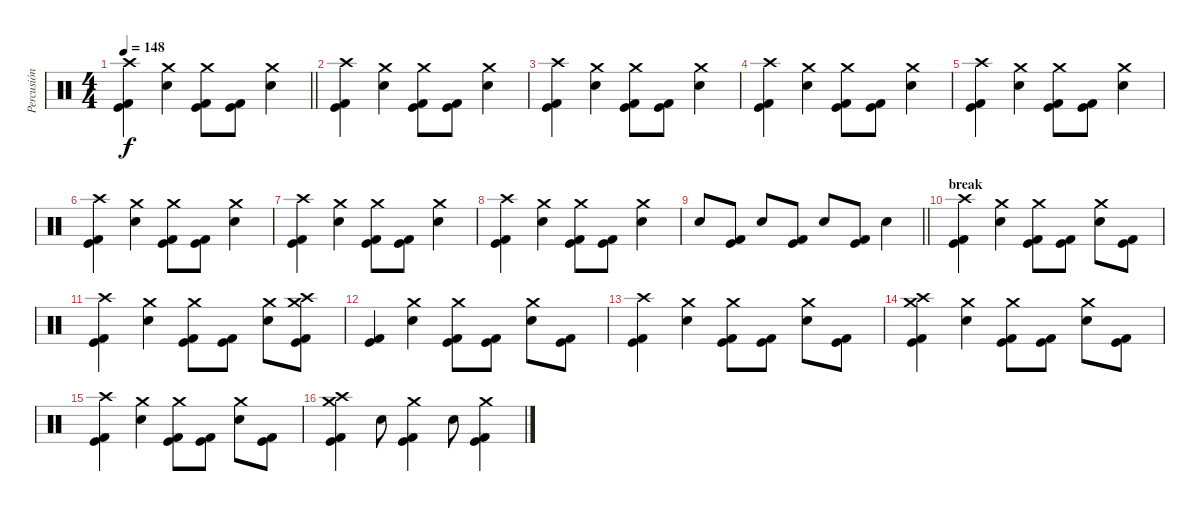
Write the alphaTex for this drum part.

\track ("Percusión" "Percusión") {instrument percussion}
\staff {score}
\articulation defaults
\ts (4 4)
\tempo 148
\clef neutral
\barLineRight lightlight
\ks c
("Crash high (hit)" "Kick (hit)" "Kick (hit) 2").4{dy f} ("Crash medium (hit)" "Electric Snare (hit)").4 ("Crash medium (hit)" "Kick (hit)" "Kick (hit) 2").8 ("Kick (hit)" "Kick (hit) 2").8 ("Crash medium (hit)" "Electric Snare (hit)").4 |
("Crash high (hit)" "Kick (hit)" "Kick (hit) 2").4 ("Crash medium (hit)" "Electric Snare (hit)").4 ("Crash medium (hit)" "Kick (hit)" "Kick (hit) 2").8 ("Kick (hit)" "Kick (hit) 2").8 ("Crash medium (hit)" "Electric Snare (hit)").4 |
("Crash high (hit)" "Kick (hit)" "Kick (hit) 2").4 ("Crash medium (hit)" "Electric Snare (hit)").4 ("Crash medium (hit)" "Kick (hit)" "Kick (hit) 2").8 ("Kick (hit)" "Kick (hit) 2").8 ("Crash medium (hit)" "Electric Snare (hit)").4 |
("Crash high (hit)" "Kick (hit)" "Kick (hit) 2").4 ("Crash medium (hit)" "Electric Snare (hit)").4 ("Crash medium (hit)" "Kick (hit)" "Kick (hit) 2").8 ("Kick (hit)" "Kick (hit) 2").8 ("Crash medium (hit)" "Electric Snare (hit)").4 |
("Crash high (hit)" "Kick (hit)" "Kick (hit) 2").4 ("Crash medium (hit)" "Electric Snare (hit)").4 ("Crash medium (hit)" "Kick (hit)" "Kick (hit) 2").8 ("Kick (hit)" "Kick (hit) 2").8 ("Crash medium (hit)" "Electric Snare (hit)").4 |
("Crash high (hit)" "Kick (hit)" "Kick (hit) 2").4 ("Crash medium (hit)" "Electric Snare (hit)").4 ("Crash medium (hit)" "Kick (hit)" "Kick (hit) 2").8 ("Kick (hit)" "Kick (hit) 2").8 ("Crash medium (hit)" "Electric Snare (hit)").4 |
("Crash high (hit)" "Kick (hit)" "Kick (hit) 2").4 ("Crash medium (hit)" "Electric Snare (hit)").4 ("Crash medium (hit)" "Kick (hit)" "Kick (hit) 2").8 ("Kick (hit)" "Kick (hit) 2").8 ("Crash medium (hit)" "Electric Snare (hit)").4 |
("Crash high (hit)" "Kick (hit)" "Kick (hit) 2").4 ("Crash medium (hit)" "Electric Snare (hit)").4 ("Crash medium (hit)" "Kick (hit)" "Kick (hit) 2").8 ("Kick (hit)" "Kick (hit) 2").8 ("Crash medium (hit)" "Electric Snare (hit)").4 |
\barLineRight lightlight "Electric Snare (hit)".8
("Kick (hit)" "Kick (hit) 2").8 "Electric Snare (hit)".8 ("Kick (hit)" "Kick (hit) 2").8 "Electric Snare (hit)".8 ("Kick (hit)" "Kick (hit) 2").8 "Electric Snare (hit)".4 |
\section ("" "break")
("Crash high (hit)" "Kick (hit)" "Kick (hit) 2").4 ("Crash medium (hit)" "Electric Snare (hit)").4 ("Crash medium (hit)" "Kick (hit)" "Kick (hit) 2").8 ("Kick (hit)" "Kick (hit) 2").8 ("Crash medium (hit)" "Electric Snare (hit)").8 ("Kick (hit)" "Kick (hit) 2").8 |
("Crash high (hit)" "Kick (hit)" "Kick (hit) 2").4 ("Crash medium (hit)" "Electric Snare (hit)").4 ("Crash medium (hit)" "Kick (hit)" "Kick (hit) 2").8 ("Kick (hit)" "Kick (hit) 2").8 ("Crash medium (hit)" "Electric Snare (hit)").8 ("Crash high (hit)" "Crash medium (hit)" "Kick (hit)" "Kick (hit) 2").8 |
("Kick (hit)" "Kick (hit) 2").4 ("Crash medium (hit)" "Electric Snare (hit)").4 ("Crash medium (hit)" "Kick (hit)" "Kick (hit) 2").8 ("Kick (hit)" "Kick (hit) 2").8 ("Crash medium (hit)" "Electric Snare (hit)").8 ("Kick (hit)" "Kick (hit) 2").8 |
("Crash high (hit)" "Kick (hit)" "Kick (hit) 2").4 ("Crash medium (hit)" "Electric Snare (hit)").4 ("Crash medium (hit)" "Kick (hit)" "Kick (hit) 2").8 ("Kick (hit)" "Kick (hit) 2").8 ("Crash medium (hit)" "Electric Snare (hit)").8 ("Kick (hit)" "Kick (hit) 2").8 |
("Crash high (hit)" "Crash medium (hit)" "Kick (hit)" "Kick (hit) 2").4 ("Crash medium (hit)" "Electric Snare (hit)").4 ("Crash medium (hit)" "Kick (hit)" "Kick (hit) 2").8 ("Kick (hit)" "Kick (hit) 2").8 ("Crash medium (hit)" "Electric Snare (hit)").8 ("Kick (hit)" "Kick (hit) 2").8 |
("Crash high (hit)" "Kick (hit)" "Kick (hit) 2").4 ("Crash medium (hit)" "Electric Snare (hit)").4 ("Crash medium (hit)" "Kick (hit)" "Kick (hit) 2").8 ("Kick (hit)" "Kick (hit) 2").8 ("Crash medium (hit)" "Electric Snare (hit)").8 ("Kick (hit)" "Kick (hit) 2").8 |
("Crash high (hit)" "Crash medium (hit)" "Kick (hit)" "Kick (hit) 2").4 "Electric Snare (hit)".8 ("Crash medium (hit)" "Kick (hit)" "Kick (hit) 2").4 "Electric Snare (hit)".8 ("Crash medium (hit)" "Kick (hit)" "Kick (hit) 2").4
